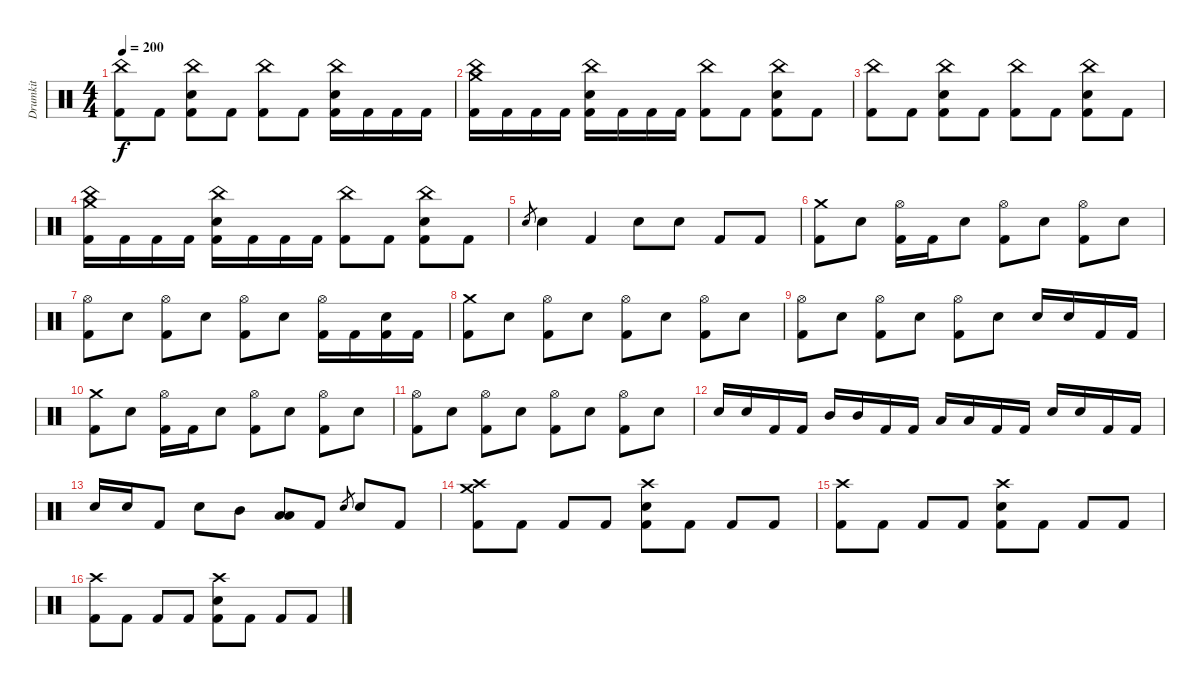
\track ("Drumkit" "Drumkit") {instrument percussion}
\staff {score}
\articulation defaults
\ts (4 4)
\tempo 200
\clef neutral
\ks c
("China (hit)" "Kick (hit) 2").8{dy f} "Kick (hit) 2".8 ("China (hit)" "Electric Snare (hit)" "Kick (hit) 2").8 "Kick (hit) 2".8 ("China (hit)" "Kick (hit) 2").8 "Kick (hit) 2".8 ("China (hit)" "Electric Snare (hit)" "Kick (hit) 2").16 "Kick (hit) 2".16 "Kick (hit) 2".16 "Kick (hit) 2".16 |
("Crash medium (hit)" "China (hit)" "Kick (hit) 2").16 "Kick (hit) 2".16 "Kick (hit) 2".16 "Kick (hit) 2".16 ("China (hit)" "Electric Snare (hit)" "Kick (hit) 2").16 "Kick (hit) 2".16 "Kick (hit) 2".16 "Kick (hit) 2".16 ("China (hit)" "Kick (hit) 2").8 "Kick (hit) 2".8 ("China (hit)" "Electric Snare (hit)" "Kick (hit) 2").8 "Kick (hit) 2".8 |
("China (hit)" "Kick (hit) 2").8 "Kick (hit) 2".8 ("China (hit)" "Electric Snare (hit)" "Kick (hit) 2").8 "Kick (hit) 2".8 ("China (hit)" "Kick (hit) 2").8 "Kick (hit) 2".8 ("China (hit)" "Electric Snare (hit)" "Kick (hit) 2").8 "Kick (hit) 2".8 |
("Crash medium (hit)" "China (hit)" "Kick (hit) 2").16 "Kick (hit) 2".16 "Kick (hit) 2".16 "Kick (hit) 2".16 ("China (hit)" "Electric Snare (hit)" "Kick (hit) 2").16 "Kick (hit) 2".16 "Kick (hit) 2".16 "Kick (hit) 2".16 ("China (hit)" "Kick (hit) 2").8 "Kick (hit) 2".8 ("China (hit)" "Electric Snare (hit)" "Kick (hit) 2").8 "Kick (hit) 2".8 |
"Snare (hit)".8{gr} "Electric Snare (hit)".4 "Kick (hit) 2".4 "Electric Snare (hit)".8 "Electric Snare (hit)".8 "Kick (hit) 2".8 "Kick (hit) 2".8 |
("Crash medium (hit)" "Kick (hit) 2").8 "Electric Snare (hit)".8 ("Hi-Hat (open)" "Kick (hit) 2").16 "Kick (hit) 2".16 "Electric Snare (hit)".8 ("Hi-Hat (open)" "Kick (hit) 2").8 "Electric Snare (hit)".8 ("Hi-Hat (open)" "Kick (hit) 2").8 "Electric Snare (hit)".8 |
("Hi-Hat (open)" "Kick (hit) 2").8 "Electric Snare (hit)".8 ("Hi-Hat (open)" "Kick (hit) 2").8 "Electric Snare (hit)".8 ("Hi-Hat (open)" "Kick (hit) 2").8 "Electric Snare (hit)".8 ("Hi-Hat (open)" "Kick (hit) 2").16 "Kick (hit) 2".16 ("Electric Snare (hit)" "Kick (hit) 2").16 "Kick (hit) 2".16 |
("Crash medium (hit)" "Kick (hit) 2").8 "Electric Snare (hit)".8 ("Hi-Hat (open)" "Kick (hit) 2").8 "Electric Snare (hit)".8 ("Hi-Hat (open)" "Kick (hit) 2").8 "Electric Snare (hit)".8 ("Hi-Hat (open)" "Kick (hit) 2").8 "Electric Snare (hit)".8 |
("Hi-Hat (open)" "Kick (hit) 2").8 "Electric Snare (hit)".8 ("Hi-Hat (open)" "Kick (hit) 2").8 "Electric Snare (hit)".8 ("Hi-Hat (open)" "Kick (hit) 2").8 "Electric Snare (hit)".8 "Electric Snare (hit)".16 "Electric Snare (hit)".16 "Kick (hit) 2".16 "Kick (hit) 2".16 |
("Crash medium (hit)" "Kick (hit) 2").8 "Electric Snare (hit)".8 ("Hi-Hat (open)" "Kick (hit) 2").16 "Kick (hit) 2".16 "Electric Snare (hit)".8 ("Hi-Hat (open)" "Kick (hit) 2").8 "Electric Snare (hit)".8 ("Hi-Hat (open)" "Kick (hit) 2").8 "Electric Snare (hit)".8 |
("Hi-Hat (open)" "Kick (hit) 2").8 "Electric Snare (hit)".8 ("Hi-Hat (open)" "Kick (hit) 2").8 "Electric Snare (hit)".8 ("Hi-Hat (open)" "Kick (hit) 2").8 "Electric Snare (hit)".8 ("Hi-Hat (open)" "Kick (hit) 2").8 "Electric Snare (hit)".8 |
"Electric Snare (hit)".16 "Electric Snare (hit)".16 "Kick (hit) 2".16 "Kick (hit) 2".16 "Mid Tom (hit)".16 "Mid Tom (hit)".16 "Kick (hit) 2".16 "Kick (hit) 2".16 "Low Tom (hit)".16 "Low Tom (hit)".16 "Kick (hit) 2".16 "Kick (hit) 2".16 "Electric Snare (hit)".16 "Electric Snare (hit)".16 "Kick (hit) 2".16 "Kick (hit) 2".16 |
"Electric Snare (hit)".16 "Electric Snare (hit)".16 "Kick (hit) 2".8 "Electric Snare (hit)".8 "Mid Tom (hit)".8 ("Low Tom (hit)" "Low Tom (hit)").8 "Kick (hit) 2".8 "Snare (hit)".8{gr} "Electric Snare (hit)".8 "Kick (hit) 2".8 |
("Crash medium (hit)" "Crash high (hit)" "Kick (hit) 2").8 "Kick (hit) 2".8 "Kick (hit) 2".8 "Kick (hit) 2".8 ("Crash high (hit)" "Electric Snare (hit)" "Kick (hit) 2").8 "Kick (hit) 2".8 "Kick (hit) 2".8 "Kick (hit) 2".8 |
("Crash high (hit)" "Kick (hit) 2").8 "Kick (hit) 2".8 "Kick (hit) 2".8 "Kick (hit) 2".8 ("Crash high (hit)" "Electric Snare (hit)" "Kick (hit) 2").8 "Kick (hit) 2".8 "Kick (hit) 2".8 "Kick (hit) 2".8 |
("Crash high (hit)" "Kick (hit) 2").8 "Kick (hit) 2".8 "Kick (hit) 2".8 "Kick (hit) 2".8 ("Crash high (hit)" "Electric Snare (hit)" "Kick (hit) 2").8 "Kick (hit) 2".8 "Kick (hit) 2".8 "Kick (hit) 2".8
